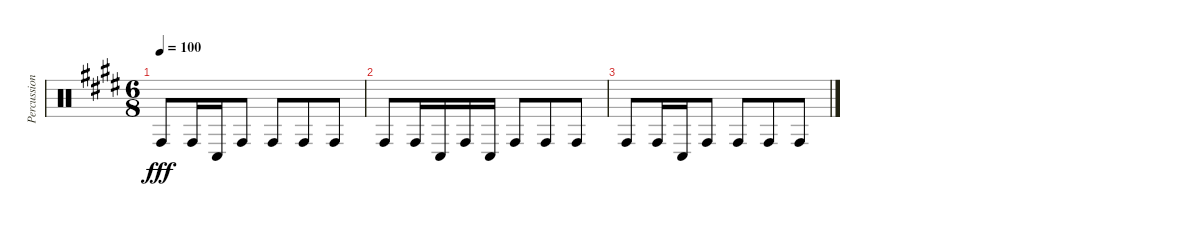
\track ("Percussion" "Percussion") {instrument percussion}
\staff {score}
\articulation defaults
\ts (6 8)
\tempo 100
\clef neutral
\ks c#minor "Conga high (hit)".8{dy fff} "Conga high (hit)".16 "Conga low (hit)".16 "Conga high (hit)".8 "Conga high (hit)".8 "Conga high (hit)".8 "Conga high (hit)".8
|
"Conga high (hit)".8 "Conga high (hit)".16 "Conga low (hit)".16 "Conga high (hit)".16 "Conga low (hit)".16 "Conga high (hit)".8 "Conga high (hit)".8 "Conga high (hit)".8 |
"Conga high (hit)".8 "Conga high (hit)".16 "Conga low (hit)".16 "Conga high (hit)".8 "Conga high (hit)".8 "Conga high (hit)".8 "Conga high (hit)".8
